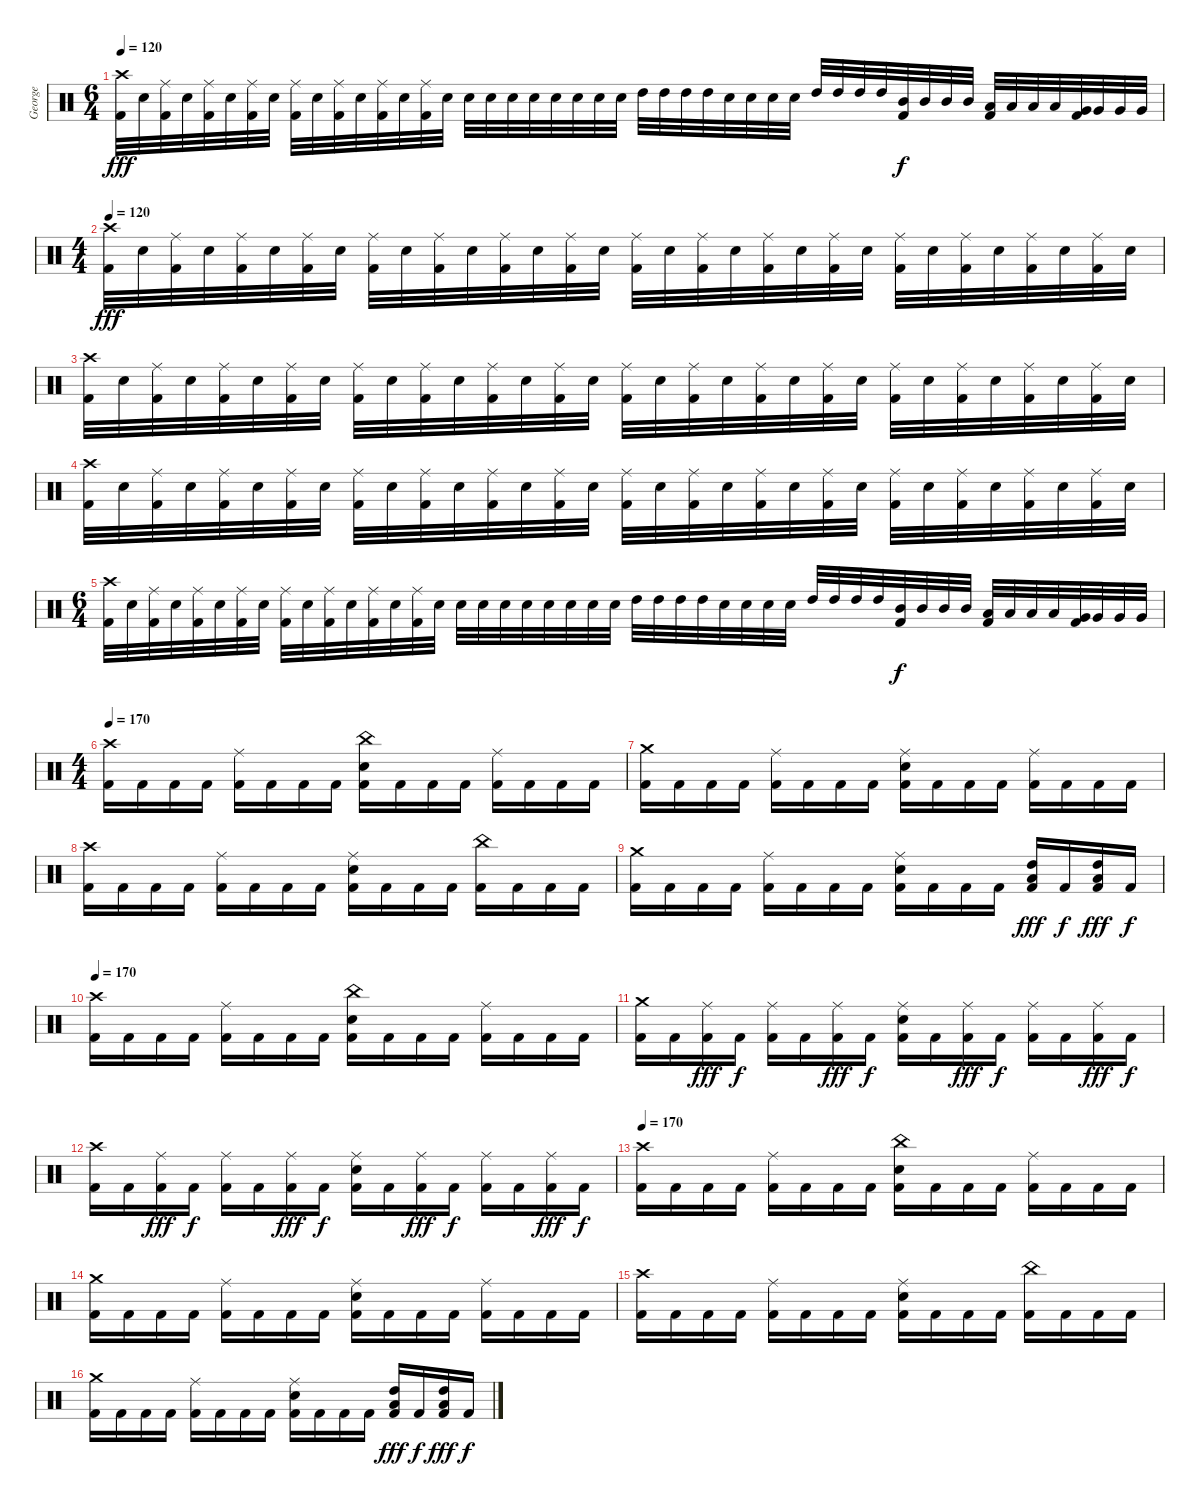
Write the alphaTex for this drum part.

\track ("George" "George") {instrument percussion}
\staff {score}
\articulation defaults
\ts (6 4)
\tempo 120
\clef neutral
\ks c
("Crash high (hit)" "Kick (hit) 2").32{dy fff} "Snare (hit) 2".32 ("Ride (middle)" "Kick (hit) 2").32 "Snare (hit) 2".32 ("Ride (middle)" "Kick (hit) 2").32 "Snare (hit) 2".32 ("Ride (middle)" "Kick (hit) 2").32 "Snare (hit) 2".32 ("Ride (middle)" "Kick (hit) 2").32 "Snare (hit) 2".32 ("Ride (middle)" "Kick (hit) 2").32 "Snare (hit) 2".32 ("Ride (middle)" "Kick (hit) 2").32 "Snare (hit) 2".32 ("Ride (middle)" "Kick (hit) 2").32 "Snare (hit) 2".32 "Snare (hit) 2".32 "Snare (hit) 2".32 "Snare (hit) 2".32 "Snare (hit) 2".32 "Snare (hit) 2".32 "Snare (hit) 2".32 "Snare (hit) 2".32 "Snare (hit) 2".32 "High Tom (hit)".32 "High Tom (hit)".32 "High Tom (hit)".32 "High Tom (hit)".32 "Snare (hit) 2".32 "Snare (hit) 2".32 "Snare (hit) 2".32 "Snare (hit) 2".32 "High Tom (hit)".32 "High Tom (hit)".32 "High Tom (hit)".32 "High Tom (hit)".32 ("Mid Tom (hit)" "Kick (hit) 2").32{dy f} "Mid Tom (hit)".32 "Mid Tom (hit)".32 "Mid Tom (hit)".32 ("Low Tom (hit)" "Kick (hit) 2").32 "Low Tom (hit)".32 "Low Tom (hit)".32 "Low Tom (hit)".32 ("Very Low Tom (hit)" "Kick (hit) 2").32 "Very Low Tom (hit)".32 "Very Low Tom (hit)".32 "Very Low Tom (hit)".32 |
\ts (4 4)
\tempo 120
("Crash high (hit)" "Kick (hit) 2").32{dy fff} "Snare (hit) 2".32 ("Ride (middle)" "Kick (hit) 2").32 "Snare (hit) 2".32 ("Ride (middle)" "Kick (hit) 2").32 "Snare (hit) 2".32 ("Ride (middle)" "Kick (hit) 2").32 "Snare (hit) 2".32 ("Ride (middle)" "Kick (hit) 2").32 "Snare (hit) 2".32 ("Ride (middle)" "Kick (hit) 2").32 "Snare (hit) 2".32 ("Ride (middle)" "Kick (hit) 2").32 "Snare (hit) 2".32 ("Ride (middle)" "Kick (hit) 2").32 "Snare (hit) 2".32 ("Ride (middle)" "Kick (hit) 2").32 "Snare (hit) 2".32 ("Ride (middle)" "Kick (hit) 2").32 "Snare (hit) 2".32 ("Ride (middle)" "Kick (hit) 2").32 "Snare (hit) 2".32 ("Ride (middle)" "Kick (hit) 2").32 "Snare (hit) 2".32 ("Ride (middle)" "Kick (hit) 2").32 "Snare (hit) 2".32 ("Ride (middle)" "Kick (hit) 2").32 "Snare (hit) 2".32 ("Ride (middle)" "Kick (hit) 2").32 "Snare (hit) 2".32 ("Ride (middle)" "Kick (hit) 2").32 "Snare (hit) 2".32 |
("Crash high (hit)" "Kick (hit) 2").32 "Snare (hit) 2".32 ("Ride (middle)" "Kick (hit) 2").32 "Snare (hit) 2".32 ("Ride (middle)" "Kick (hit) 2").32 "Snare (hit) 2".32 ("Ride (middle)" "Kick (hit) 2").32 "Snare (hit) 2".32 ("Ride (middle)" "Kick (hit) 2").32 "Snare (hit) 2".32 ("Ride (middle)" "Kick (hit) 2").32 "Snare (hit) 2".32 ("Ride (middle)" "Kick (hit) 2").32 "Snare (hit) 2".32 ("Ride (middle)" "Kick (hit) 2").32 "Snare (hit) 2".32 ("Ride (middle)" "Kick (hit) 2").32 "Snare (hit) 2".32 ("Ride (middle)" "Kick (hit) 2").32 "Snare (hit) 2".32 ("Ride (middle)" "Kick (hit) 2").32 "Snare (hit) 2".32 ("Ride (middle)" "Kick (hit) 2").32 "Snare (hit) 2".32 ("Ride (middle)" "Kick (hit) 2").32 "Snare (hit) 2".32 ("Ride (middle)" "Kick (hit) 2").32 "Snare (hit) 2".32 ("Ride (middle)" "Kick (hit) 2").32 "Snare (hit) 2".32 ("Ride (middle)" "Kick (hit) 2").32 "Snare (hit) 2".32 |
("Crash high (hit)" "Kick (hit) 2").32 "Snare (hit) 2".32 ("Ride (middle)" "Kick (hit) 2").32 "Snare (hit) 2".32 ("Ride (middle)" "Kick (hit) 2").32 "Snare (hit) 2".32 ("Ride (middle)" "Kick (hit) 2").32 "Snare (hit) 2".32 ("Ride (middle)" "Kick (hit) 2").32 "Snare (hit) 2".32 ("Ride (middle)" "Kick (hit) 2").32 "Snare (hit) 2".32 ("Ride (middle)" "Kick (hit) 2").32 "Snare (hit) 2".32 ("Ride (middle)" "Kick (hit) 2").32 "Snare (hit) 2".32 ("Ride (middle)" "Kick (hit) 2").32 "Snare (hit) 2".32 ("Ride (middle)" "Kick (hit) 2").32 "Snare (hit) 2".32 ("Ride (middle)" "Kick (hit) 2").32 "Snare (hit) 2".32 ("Ride (middle)" "Kick (hit) 2").32 "Snare (hit) 2".32 ("Ride (middle)" "Kick (hit) 2").32 "Snare (hit) 2".32 ("Ride (middle)" "Kick (hit) 2").32 "Snare (hit) 2".32 ("Ride (middle)" "Kick (hit) 2").32 "Snare (hit) 2".32 ("Ride (middle)" "Kick (hit) 2").32 "Snare (hit) 2".32 |
\ts (6 4)
("Crash high (hit)" "Kick (hit) 2").32 "Snare (hit) 2".32 ("Ride (middle)" "Kick (hit) 2").32 "Snare (hit) 2".32 ("Ride (middle)" "Kick (hit) 2").32 "Snare (hit) 2".32 ("Ride (middle)" "Kick (hit) 2").32 "Snare (hit) 2".32 ("Ride (middle)" "Kick (hit) 2").32 "Snare (hit) 2".32 ("Ride (middle)" "Kick (hit) 2").32 "Snare (hit) 2".32 ("Ride (middle)" "Kick (hit) 2").32 "Snare (hit) 2".32 ("Ride (middle)" "Kick (hit) 2").32 "Snare (hit) 2".32 "Snare (hit) 2".32 "Snare (hit) 2".32 "Snare (hit) 2".32 "Snare (hit) 2".32 "Snare (hit) 2".32 "Snare (hit) 2".32 "Snare (hit) 2".32 "Snare (hit) 2".32 "High Tom (hit)".32 "High Tom (hit)".32 "High Tom (hit)".32 "High Tom (hit)".32 "Snare (hit) 2".32 "Snare (hit) 2".32 "Snare (hit) 2".32 "Snare (hit) 2".32 "High Tom (hit)".32 "High Tom (hit)".32 "High Tom (hit)".32 "High Tom (hit)".32 ("Mid Tom (hit)" "Kick (hit) 2").32{dy f} "Mid Tom (hit)".32 "Mid Tom (hit)".32 "Mid Tom (hit)".32 ("Low Tom (hit)" "Kick (hit) 2").32 "Low Tom (hit)".32 "Low Tom (hit)".32 "Low Tom (hit)".32 ("Very Low Tom (hit)" "Kick (hit) 2").32 "Very Low Tom (hit)".32 "Very Low Tom (hit)".32 "Very Low Tom (hit)".32 |
\ts (4 4)
\tempo 170
("Crash high (hit)" "Kick (hit) 2").16 "Kick (hit) 2".16 "Kick (hit) 2".16 "Kick (hit) 2".16 ("Ride (middle)" "Kick (hit) 2").16 "Kick (hit) 2".16 "Kick (hit) 2".16 "Kick (hit) 2".16 ("China (hit)" "Snare (hit) 2" "Kick (hit) 2").16 "Kick (hit) 2".16 "Kick (hit) 2".16 "Kick (hit) 2".16 ("Ride (middle)" "Kick (hit) 2").16 "Kick (hit) 2".16 "Kick (hit) 2".16 "Kick (hit) 2".16 |
("Crash medium (hit)" "Kick (hit) 2").16 "Kick (hit) 2".16 "Kick (hit) 2".16 "Kick (hit) 2".16 ("Ride (middle)" "Kick (hit) 2").16 "Kick (hit) 2".16 "Kick (hit) 2".16 "Kick (hit) 2".16 ("Ride (middle)" "Snare (hit) 2" "Kick (hit) 2").16 "Kick (hit) 2".16 "Kick (hit) 2".16 "Kick (hit) 2".16 ("Ride (middle)" "Kick (hit) 2").16 "Kick (hit) 2".16 "Kick (hit) 2".16 "Kick (hit) 2".16 |
("Crash high (hit)" "Kick (hit) 2").16 "Kick (hit) 2".16 "Kick (hit) 2".16 "Kick (hit) 2".16 ("Ride (middle)" "Kick (hit) 2").16 "Kick (hit) 2".16 "Kick (hit) 2".16 "Kick (hit) 2".16 ("Ride (middle)" "Snare (hit) 2" "Kick (hit) 2").16 "Kick (hit) 2".16 "Kick (hit) 2".16 "Kick (hit) 2".16 ("China (hit)" "Kick (hit) 2").16 "Kick (hit) 2".16 "Kick (hit) 2".16 "Kick (hit) 2".16 |
("Crash medium (hit)" "Kick (hit) 2").16 "Kick (hit) 2".16 "Kick (hit) 2".16 "Kick (hit) 2".16 ("Ride (middle)" "Kick (hit) 2").16 "Kick (hit) 2".16 "Kick (hit) 2".16 "Kick (hit) 2".16 ("Ride (middle)" "Snare (hit) 2" "Kick (hit) 2").16 "Kick (hit) 2".16 "Kick (hit) 2".16 "Kick (hit) 2".16 ("High Tom (hit)" "Low Tom (hit)" "Kick (hit) 2").16{dy fff} "Kick (hit) 2".16{dy f} ("High Tom (hit)" "Low Tom (hit)" "Kick (hit) 2").16{dy fff} "Kick (hit) 2".16{dy f} |
\tempo 170
("Crash high (hit)" "Kick (hit) 2").16 "Kick (hit) 2".16 "Kick (hit) 2".16 "Kick (hit) 2".16 ("Ride (middle)" "Kick (hit) 2").16 "Kick (hit) 2".16 "Kick (hit) 2".16 "Kick (hit) 2".16 ("China (hit)" "Snare (hit) 2" "Kick (hit) 2").16 "Kick (hit) 2".16 "Kick (hit) 2".16 "Kick (hit) 2".16 ("Ride (middle)" "Kick (hit) 2").16 "Kick (hit) 2".16 "Kick (hit) 2".16 "Kick (hit) 2".16 |
("Crash medium (hit)" "Kick (hit) 2").16 "Kick (hit) 2".16 ("Ride (middle)" "Kick (hit) 2").16{dy fff} "Kick (hit) 2".16{dy f} ("Ride (middle)" "Kick (hit) 2").16 "Kick (hit) 2".16 ("Ride (middle)" "Kick (hit) 2").16{dy fff} "Kick (hit) 2".16{dy f} ("Ride (middle)" "Snare (hit) 2" "Kick (hit) 2").16 "Kick (hit) 2".16 ("Ride (middle)" "Kick (hit) 2").16{dy fff} "Kick (hit) 2".16{dy f} ("Ride (middle)" "Kick (hit) 2").16 "Kick (hit) 2".16 ("Ride (middle)" "Kick (hit) 2").16{dy fff} "Kick (hit) 2".16{dy f} |
("Crash high (hit)" "Kick (hit) 2").16 "Kick (hit) 2".16 ("Ride (middle)" "Kick (hit) 2").16{dy fff} "Kick (hit) 2".16{dy f} ("Ride (middle)" "Kick (hit) 2").16 "Kick (hit) 2".16 ("Ride (middle)" "Kick (hit) 2").16{dy fff} "Kick (hit) 2".16{dy f} ("Ride (middle)" "Snare (hit) 2" "Kick (hit) 2").16 "Kick (hit) 2".16 ("Ride (middle)" "Kick (hit) 2").16{dy fff} "Kick (hit) 2".16{dy f} ("Ride (middle)" "Kick (hit) 2").16 "Kick (hit) 2".16 ("Ride (middle)" "Kick (hit) 2").16{dy fff} "Kick (hit) 2".16{dy f} |
\tempo 170
("Crash high (hit)" "Kick (hit) 2").16 "Kick (hit) 2".16 "Kick (hit) 2".16 "Kick (hit) 2".16 ("Ride (middle)" "Kick (hit) 2").16 "Kick (hit) 2".16 "Kick (hit) 2".16 "Kick (hit) 2".16 ("China (hit)" "Snare (hit) 2" "Kick (hit) 2").16 "Kick (hit) 2".16 "Kick (hit) 2".16 "Kick (hit) 2".16 ("Ride (middle)" "Kick (hit) 2").16 "Kick (hit) 2".16 "Kick (hit) 2".16 "Kick (hit) 2".16 |
("Crash medium (hit)" "Kick (hit) 2").16 "Kick (hit) 2".16 "Kick (hit) 2".16 "Kick (hit) 2".16 ("Ride (middle)" "Kick (hit) 2").16 "Kick (hit) 2".16 "Kick (hit) 2".16 "Kick (hit) 2".16 ("Ride (middle)" "Snare (hit) 2" "Kick (hit) 2").16 "Kick (hit) 2".16 "Kick (hit) 2".16 "Kick (hit) 2".16 ("Ride (middle)" "Kick (hit) 2").16 "Kick (hit) 2".16 "Kick (hit) 2".16 "Kick (hit) 2".16 |
("Crash high (hit)" "Kick (hit) 2").16 "Kick (hit) 2".16 "Kick (hit) 2".16 "Kick (hit) 2".16 ("Ride (middle)" "Kick (hit) 2").16 "Kick (hit) 2".16 "Kick (hit) 2".16 "Kick (hit) 2".16 ("Ride (middle)" "Snare (hit) 2" "Kick (hit) 2").16 "Kick (hit) 2".16 "Kick (hit) 2".16 "Kick (hit) 2".16 ("China (hit)" "Kick (hit) 2").16 "Kick (hit) 2".16 "Kick (hit) 2".16 "Kick (hit) 2".16 |
("Crash medium (hit)" "Kick (hit) 2").16 "Kick (hit) 2".16 "Kick (hit) 2".16 "Kick (hit) 2".16 ("Ride (middle)" "Kick (hit) 2").16 "Kick (hit) 2".16 "Kick (hit) 2".16 "Kick (hit) 2".16 ("Ride (middle)" "Snare (hit) 2" "Kick (hit) 2").16 "Kick (hit) 2".16 "Kick (hit) 2".16 "Kick (hit) 2".16 ("High Tom (hit)" "Low Tom (hit)" "Kick (hit) 2").16{dy fff} "Kick (hit) 2".16{dy f} ("High Tom (hit)" "Low Tom (hit)" "Kick (hit) 2").16{dy fff} "Kick (hit) 2".16{dy f}
